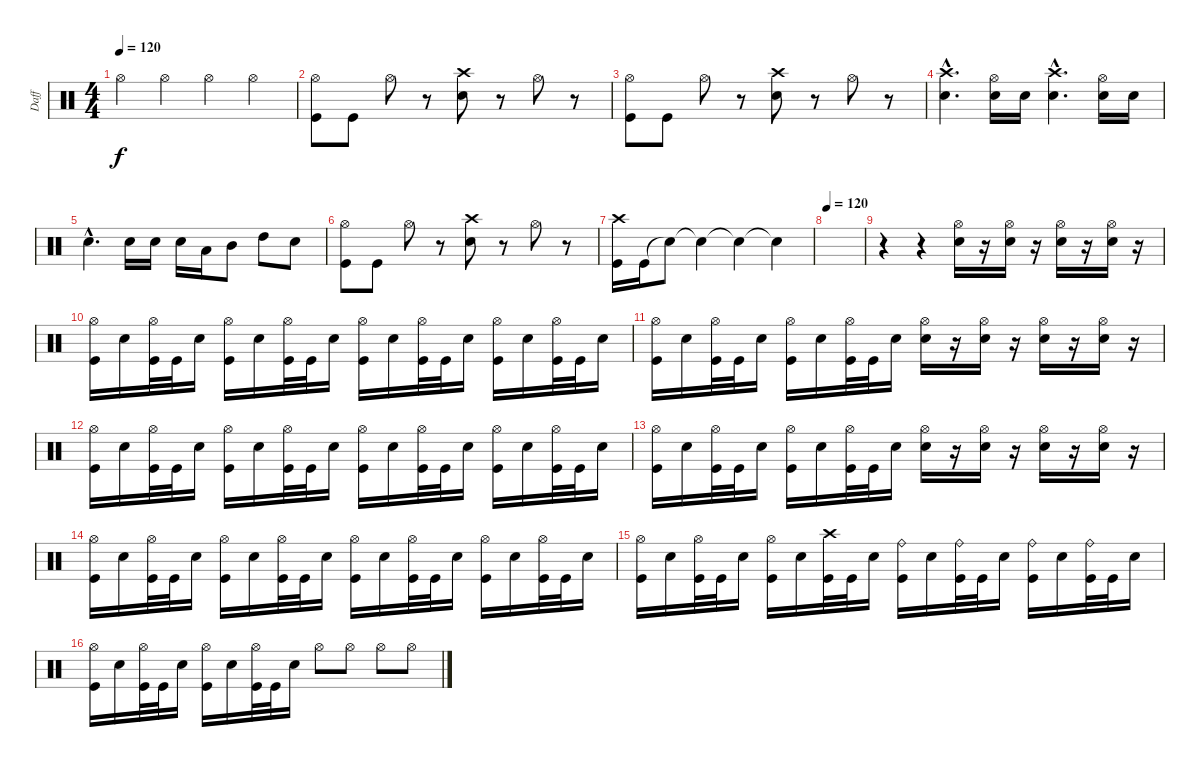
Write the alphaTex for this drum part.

\track ("Daff" "Daff") {instrument percussion}
\staff {score}
\articulation defaults
\ts (4 4)
\tempo 120
\tempo 140
\tempo 120
\clef neutral
\ks c "Hi-Hat (open)".4{dy f} "Hi-Hat (open)".4 "Hi-Hat (open)".4 "Hi-Hat (open)".4
|
("Hi-Hat (open)" "Kick (hit)").8 "Kick (hit)".8 "Hi-Hat (open)".8 r.8 ("Crash high (hit)" "Electric Snare (hit)").8 r.8 "Hi-Hat (open)".8 r.8 |
("Hi-Hat (open)" "Kick (hit)").8 "Kick (hit)".8 "Hi-Hat (open)".8 r.8 ("Crash high (hit)" "Electric Snare (hit)").8 r.8 "Hi-Hat (open)".8 r.8 |
("Crash high (hit)"{hac} "Electric Snare (hit)"{hac}).4{d} ("Hi-Hat (open)" "Electric Snare (hit)").16 "Electric Snare (hit)".16 ("Crash high (hit)"{hac} "Electric Snare (hit)"{hac}).4{d} ("Hi-Hat (open)" "Electric Snare (hit)").16 "Electric Snare (hit)".16 |
"Electric Snare (hit)"{hac}.4{d} "Electric Snare (hit)".16 "Electric Snare (hit)".16 "Electric Snare (hit)".16 "Low Tom (hit)".16 "Mid Tom (hit)".8 "High Tom (hit)".8 "Electric Snare (hit)".8 |
("Hi-Hat (open)" "Kick (hit)").8 "Kick (hit)".8 "Hi-Hat (open)".8 r.8 ("Crash high (hit)" "Electric Snare (hit)").8 r.8 "Hi-Hat (open)".8 r.8 |
("Crash high (hit)" "Kick (hit)").16 "Kick (hit)".16 "Snare (hit)"{t}.8 "Snare (hit)"{t}.4 "Snare (hit)"{t}.4 "Snare (hit)"{t}.4 |
\tempo 120
|
r.4 r.4 ("Hi-Hat (open)" "Electric Snare (hit)").16 r.16 ("Hi-Hat (open)" "Electric Snare (hit)").16 r.16 ("Hi-Hat (open)" "Electric Snare (hit)").16 r.16 ("Hi-Hat (open)" "Electric Snare (hit)").16 r.16 |
("Hi-Hat (open)" "Kick (hit)").16 "Electric Snare (hit)".16 ("Hi-Hat (open)" "Kick (hit)").32 "Kick (hit)".32 "Electric Snare (hit)".16 ("Hi-Hat (open)" "Kick (hit)").16 "Electric Snare (hit)".16 ("Hi-Hat (open)" "Kick (hit)").32 "Kick (hit)".32 "Electric Snare (hit)".16 ("Hi-Hat (open)" "Kick (hit)").16 "Electric Snare (hit)".16 ("Hi-Hat (open)" "Kick (hit)").32 "Kick (hit)".32 "Electric Snare (hit)".16 ("Hi-Hat (open)" "Kick (hit)").16 "Electric Snare (hit)".16 ("Hi-Hat (open)" "Kick (hit)").32 "Kick (hit)".32 "Electric Snare (hit)".16 |
("Hi-Hat (open)" "Kick (hit)").16 "Electric Snare (hit)".16 ("Hi-Hat (open)" "Kick (hit)").32 "Kick (hit)".32 "Electric Snare (hit)".16 ("Hi-Hat (open)" "Kick (hit)").16 "Electric Snare (hit)".16 ("Hi-Hat (open)" "Kick (hit)").32 "Kick (hit)".32 "Electric Snare (hit)".16 ("Hi-Hat (open)" "Electric Snare (hit)").16 r.16 ("Hi-Hat (open)" "Electric Snare (hit)").16 r.16 ("Hi-Hat (open)" "Electric Snare (hit)").16 r.16 ("Hi-Hat (open)" "Electric Snare (hit)").16 r.16 |
("Hi-Hat (open)" "Kick (hit)").16 "Electric Snare (hit)".16 ("Hi-Hat (open)" "Kick (hit)").32 "Kick (hit)".32 "Electric Snare (hit)".16 ("Hi-Hat (open)" "Kick (hit)").16 "Electric Snare (hit)".16 ("Hi-Hat (open)" "Kick (hit)").32 "Kick (hit)".32 "Electric Snare (hit)".16 ("Hi-Hat (open)" "Kick (hit)").16 "Electric Snare (hit)".16 ("Hi-Hat (open)" "Kick (hit)").32 "Kick (hit)".32 "Electric Snare (hit)".16 ("Hi-Hat (open)" "Kick (hit)").16 "Electric Snare (hit)".16 ("Hi-Hat (open)" "Kick (hit)").32 "Kick (hit)".32 "Electric Snare (hit)".16 |
("Hi-Hat (open)" "Kick (hit)").16 "Electric Snare (hit)".16 ("Hi-Hat (open)" "Kick (hit)").32 "Kick (hit)".32 "Electric Snare (hit)".16 ("Hi-Hat (open)" "Kick (hit)").16 "Electric Snare (hit)".16 ("Hi-Hat (open)" "Kick (hit)").32 "Kick (hit)".32 "Electric Snare (hit)".16 ("Hi-Hat (open)" "Electric Snare (hit)").16 r.16 ("Hi-Hat (open)" "Electric Snare (hit)").16 r.16 ("Hi-Hat (open)" "Electric Snare (hit)").16 r.16 ("Hi-Hat (open)" "Electric Snare (hit)").16 r.16 |
("Hi-Hat (open)" "Kick (hit)").16 "Electric Snare (hit)".16 ("Hi-Hat (open)" "Kick (hit)").32 "Kick (hit)".32 "Electric Snare (hit)".16 ("Hi-Hat (open)" "Kick (hit)").16 "Electric Snare (hit)".16 ("Hi-Hat (open)" "Kick (hit)").32 "Kick (hit)".32 "Electric Snare (hit)".16 ("Hi-Hat (open)" "Kick (hit)").16 "Electric Snare (hit)".16 ("Hi-Hat (open)" "Kick (hit)").32 "Kick (hit)".32 "Electric Snare (hit)".16 ("Hi-Hat (open)" "Kick (hit)").16 "Electric Snare (hit)".16 ("Hi-Hat (open)" "Kick (hit)").32 "Kick (hit)".32 "Electric Snare (hit)".16 |
("Hi-Hat (open)" "Kick (hit)").16 "Electric Snare (hit)".16 ("Hi-Hat (open)" "Kick (hit)").32 "Kick (hit)".32 "Electric Snare (hit)".16 ("Hi-Hat (open)" "Kick (hit)").16 "Electric Snare (hit)".16 ("Crash high (hit)" "Kick (hit)").32 "Kick (hit)".32 "Electric Snare (hit)".16 ("Ride (bell)" "Kick (hit)").16 "Electric Snare (hit)".16 ("Ride (bell)" "Kick (hit)").32 "Kick (hit)".32 "Electric Snare (hit)".16 ("Ride (bell)" "Kick (hit)").16 "Electric Snare (hit)".16 ("Ride (bell)" "Kick (hit)").32 "Kick (hit)".32 "Electric Snare (hit)".16 |
("Hi-Hat (open)" "Kick (hit)").16 "Electric Snare (hit)".16 ("Hi-Hat (open)" "Kick (hit)").32 "Kick (hit)".32 "Electric Snare (hit)".16 ("Hi-Hat (open)" "Kick (hit)").16 "Electric Snare (hit)".16 ("Hi-Hat (open)" "Kick (hit)").32 "Kick (hit)".32 "Electric Snare (hit)".16 "Hi-Hat (open)".8 "Hi-Hat (open)".8 "Hi-Hat (open)".8 "Hi-Hat (open)".8
